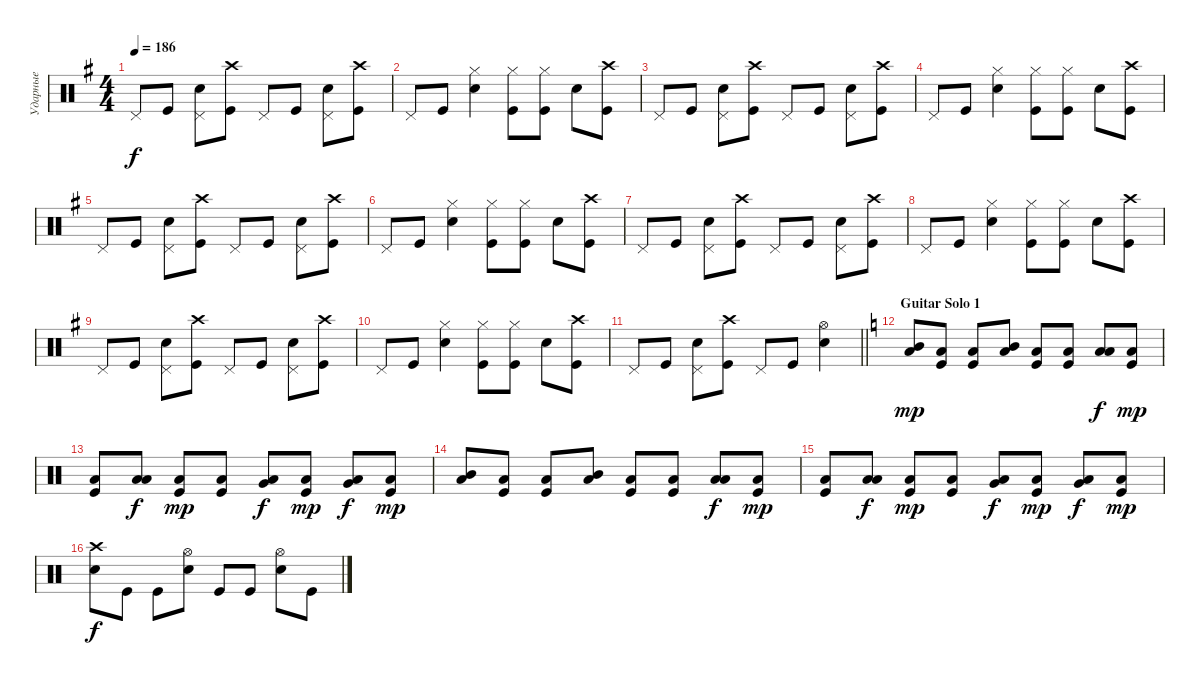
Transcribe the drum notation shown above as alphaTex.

\track ("Ударные" "Ударные") {instrument percussion}
\staff {score}
\articulation defaults
\ts (4 4)
\tempo 186
\clef neutral
\ks eminor "Pedal Hi-Hat (hit)".8{dy f} "Kick (hit)".8
("Snare (hit) 2" "Pedal Hi-Hat (hit)").8 ("Kick (hit)" "Crash high (hit)").8 "Pedal Hi-Hat (hit)".8 "Kick (hit)".8 ("Snare (hit) 2" "Pedal Hi-Hat (hit)").8 ("Kick (hit)" "Crash high (hit)").8 |
"Pedal Hi-Hat (hit)".8 "Kick (hit)".8 ("Snare (hit) 2" "Hi-Hat (closed)").4 ("Kick (hit)" "Hi-Hat (closed)").8 ("Kick (hit)" "Hi-Hat (closed)").8 "Snare (hit) 2".8 ("Kick (hit)" "Crash high (hit)").8 |
"Pedal Hi-Hat (hit)".8 "Kick (hit)".8 ("Snare (hit) 2" "Pedal Hi-Hat (hit)").8 ("Kick (hit)" "Crash high (hit)").8 "Pedal Hi-Hat (hit)".8 "Kick (hit)".8 ("Snare (hit) 2" "Pedal Hi-Hat (hit)").8 ("Kick (hit)" "Crash high (hit)").8 |
"Pedal Hi-Hat (hit)".8 "Kick (hit)".8 ("Snare (hit) 2" "Hi-Hat (closed)").4 ("Kick (hit)" "Hi-Hat (closed)").8 ("Kick (hit)" "Hi-Hat (closed)").8 "Snare (hit) 2".8 ("Kick (hit)" "Crash high (hit)").8 |
"Pedal Hi-Hat (hit)".8 "Kick (hit)".8 ("Snare (hit) 2" "Pedal Hi-Hat (hit)").8 ("Kick (hit)" "Crash high (hit)").8 "Pedal Hi-Hat (hit)".8 "Kick (hit)".8 ("Snare (hit) 2" "Pedal Hi-Hat (hit)").8 ("Kick (hit)" "Crash high (hit)").8 |
"Pedal Hi-Hat (hit)".8 "Kick (hit)".8 ("Snare (hit) 2" "Hi-Hat (closed)").4 ("Kick (hit)" "Hi-Hat (closed)").8 ("Kick (hit)" "Hi-Hat (closed)").8 "Snare (hit) 2".8 ("Kick (hit)" "Crash high (hit)").8 |
"Pedal Hi-Hat (hit)".8 "Kick (hit)".8 ("Snare (hit) 2" "Pedal Hi-Hat (hit)").8 ("Kick (hit)" "Crash high (hit)").8 "Pedal Hi-Hat (hit)".8 "Kick (hit)".8 ("Snare (hit) 2" "Pedal Hi-Hat (hit)").8 ("Kick (hit)" "Crash high (hit)").8 |
"Pedal Hi-Hat (hit)".8 "Kick (hit)".8 ("Snare (hit) 2" "Hi-Hat (closed)").4 ("Kick (hit)" "Hi-Hat (closed)").8 ("Kick (hit)" "Hi-Hat (closed)").8 "Snare (hit) 2".8 ("Kick (hit)" "Crash high (hit)").8 |
"Pedal Hi-Hat (hit)".8 "Kick (hit)".8 ("Snare (hit) 2" "Pedal Hi-Hat (hit)").8 ("Kick (hit)" "Crash high (hit)").8 "Pedal Hi-Hat (hit)".8 "Kick (hit)".8 ("Snare (hit) 2" "Pedal Hi-Hat (hit)").8 ("Kick (hit)" "Crash high (hit)").8 |
"Pedal Hi-Hat (hit)".8 "Kick (hit)".8 ("Snare (hit) 2" "Hi-Hat (closed)").4 ("Kick (hit)" "Hi-Hat (closed)").8 ("Kick (hit)" "Hi-Hat (closed)").8 "Snare (hit) 2".8 ("Kick (hit)" "Crash high (hit)").8 |
\barLineRight lightlight "Pedal Hi-Hat (hit)".8 "Kick (hit)".8
("Snare (hit) 2" "Pedal Hi-Hat (hit)").8 ("Kick (hit)" "Crash high (hit)").8 "Pedal Hi-Hat (hit)".8 "Kick (hit)".8 ("Snare (hit) 2" "Hi-Hat (open)").4 |
\section ("" "Guitar Solo 1")
\ks aminor
("Mid Tom (hit)" "Low Floor Tom (hit)").8{bd 240 dy mp} ("Kick (hit)" "Low Floor Tom (hit)").8 ("Kick (hit)" "Low Floor Tom (hit)").8 ("Mid Tom (hit)" "Low Floor Tom (hit)").8{bd 240} ("Kick (hit)" "Low Floor Tom (hit)").8 ("Kick (hit)" "Low Floor Tom (hit)").8 ("Low Tom (hit)" "Low Floor Tom (hit)").8{bd 240 dy f} ("Kick (hit)" "Low Floor Tom (hit)").8{dy mp} |
("Kick (hit)" "Low Floor Tom (hit)").8 ("Low Tom (hit)" "Low Floor Tom (hit)").8{bd 240 dy f} ("Kick (hit)" "Low Floor Tom (hit)").8{dy mp} ("Kick (hit)" "Low Floor Tom (hit)").8 ("Very Low Tom (hit)" "Low Floor Tom (hit)").8{bd 240 dy f} ("Kick (hit)" "Low Floor Tom (hit)").8{dy mp} ("Very Low Tom (hit)" "Low Floor Tom (hit)").8{bd 480 dy f} ("Kick (hit)" "Low Floor Tom (hit)").8{dy mp} |
("Mid Tom (hit)" "Low Floor Tom (hit)").8{bd 240} ("Kick (hit)" "Low Floor Tom (hit)").8 ("Kick (hit)" "Low Floor Tom (hit)").8 ("Mid Tom (hit)" "Low Floor Tom (hit)").8{bd 240} ("Kick (hit)" "Low Floor Tom (hit)").8 ("Kick (hit)" "Low Floor Tom (hit)").8 ("Low Tom (hit)" "Low Floor Tom (hit)").8{bd 240 dy f} ("Kick (hit)" "Low Floor Tom (hit)").8{dy mp} |
("Kick (hit)" "Low Floor Tom (hit)").8 ("Low Tom (hit)" "Low Floor Tom (hit)").8{bd 240 dy f} ("Kick (hit)" "Low Floor Tom (hit)").8{dy mp} ("Kick (hit)" "Low Floor Tom (hit)").8 ("Very Low Tom (hit)" "Low Floor Tom (hit)").8{bd 240 dy f} ("Kick (hit)" "Low Floor Tom (hit)").8{dy mp} ("Very Low Tom (hit)" "Low Floor Tom (hit)").8{bd 480 dy f} ("Kick (hit)" "Low Floor Tom (hit)").8{dy mp} |
("Snare (hit) 2" "Crash high (hit)").8{dy f} "Kick (hit)".8 "Kick (hit)".8 ("Snare (hit) 2" "Hi-Hat (open)").8 "Kick (hit)".8 "Kick (hit)".8 ("Snare (hit) 2" "Hi-Hat (open)").8 "Kick (hit)".8
